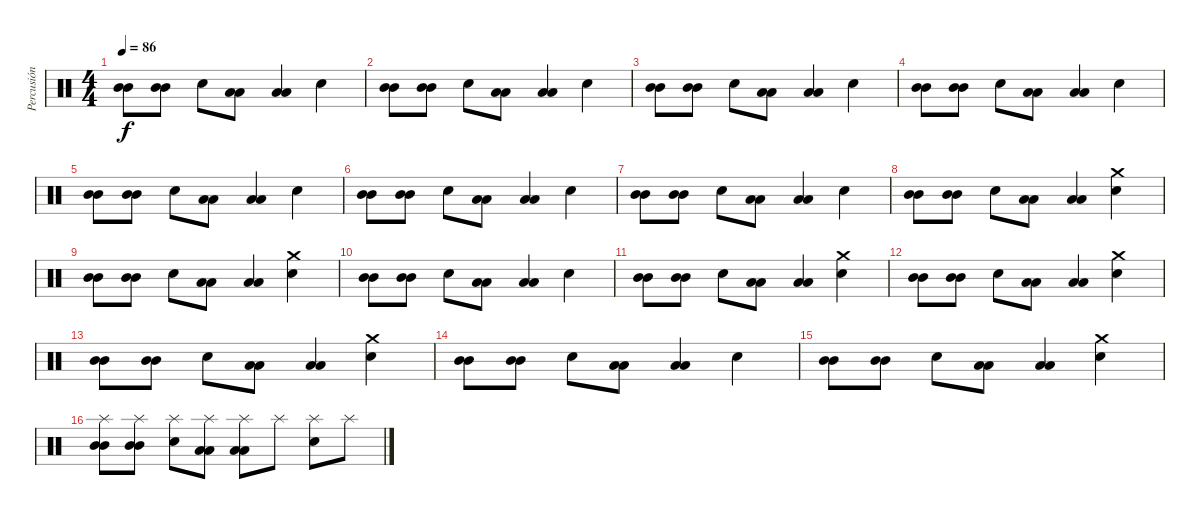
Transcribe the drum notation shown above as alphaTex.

\track ("Percusión" "Percusión") {instrument percussion}
\staff {score}
\articulation defaults
\ts (4 4)
\tempo 86
\clef neutral
\ks c
("Mid Tom (hit)" "Mid Tom (hit)").8{dy f} ("Mid Tom (hit)" "Mid Tom (hit)").8 "Electric Snare (hit)".8 ("Low Tom (hit)" "Low Tom (hit)").8 ("Low Tom (hit)" "Low Tom (hit)").4 "Electric Snare (hit)".4 |
("Mid Tom (hit)" "Mid Tom (hit)").8 ("Mid Tom (hit)" "Mid Tom (hit)").8 "Electric Snare (hit)".8 ("Low Tom (hit)" "Low Tom (hit)").8 ("Low Tom (hit)" "Low Tom (hit)").4 "Electric Snare (hit)".4 |
("Mid Tom (hit)" "Mid Tom (hit)").8 ("Mid Tom (hit)" "Mid Tom (hit)").8 "Electric Snare (hit)".8 ("Low Tom (hit)" "Low Tom (hit)").8 ("Low Tom (hit)" "Low Tom (hit)").4 "Electric Snare (hit)".4 |
("Mid Tom (hit)" "Mid Tom (hit)").8 ("Mid Tom (hit)" "Mid Tom (hit)").8 "Electric Snare (hit)".8 ("Low Tom (hit)" "Low Tom (hit)").8 ("Low Tom (hit)" "Low Tom (hit)").4 "Electric Snare (hit)".4 |
("Mid Tom (hit)" "Mid Tom (hit)").8 ("Mid Tom (hit)" "Mid Tom (hit)").8 "Electric Snare (hit)".8 ("Low Tom (hit)" "Low Tom (hit)").8 ("Low Tom (hit)" "Low Tom (hit)").4 "Electric Snare (hit)".4 |
("Mid Tom (hit)" "Mid Tom (hit)").8 ("Mid Tom (hit)" "Mid Tom (hit)").8 "Electric Snare (hit)".8 ("Low Tom (hit)" "Low Tom (hit)").8 ("Low Tom (hit)" "Low Tom (hit)").4 "Electric Snare (hit)".4 |
("Mid Tom (hit)" "Mid Tom (hit)").8 ("Mid Tom (hit)" "Mid Tom (hit)").8 "Electric Snare (hit)".8 ("Low Tom (hit)" "Low Tom (hit)").8 ("Low Tom (hit)" "Low Tom (hit)").4 "Electric Snare (hit)".4 |
("Mid Tom (hit)" "Mid Tom (hit)").8 ("Mid Tom (hit)" "Mid Tom (hit)").8 "Electric Snare (hit)".8 ("Low Tom (hit)" "Low Tom (hit)").8 ("Low Tom (hit)" "Low Tom (hit)").4 ("Electric Snare (hit)" "Crash medium (hit)").4 |
("Mid Tom (hit)" "Mid Tom (hit)").8 ("Mid Tom (hit)" "Mid Tom (hit)").8 "Electric Snare (hit)".8 ("Low Tom (hit)" "Low Tom (hit)").8 ("Low Tom (hit)" "Low Tom (hit)").4 ("Electric Snare (hit)" "Crash medium (hit)").4 |
("Mid Tom (hit)" "Mid Tom (hit)").8 ("Mid Tom (hit)" "Mid Tom (hit)").8 "Electric Snare (hit)".8 ("Low Tom (hit)" "Low Tom (hit)").8 ("Low Tom (hit)" "Low Tom (hit)").4 "Electric Snare (hit)".4 |
("Mid Tom (hit)" "Mid Tom (hit)").8 ("Mid Tom (hit)" "Mid Tom (hit)").8 "Electric Snare (hit)".8 ("Low Tom (hit)" "Low Tom (hit)").8 ("Low Tom (hit)" "Low Tom (hit)").4 ("Electric Snare (hit)" "Crash medium (hit)").4 |
("Mid Tom (hit)" "Mid Tom (hit)").8 ("Mid Tom (hit)" "Mid Tom (hit)").8 "Electric Snare (hit)".8 ("Low Tom (hit)" "Low Tom (hit)").8 ("Low Tom (hit)" "Low Tom (hit)").4 ("Electric Snare (hit)" "Crash medium (hit)").4 |
("Mid Tom (hit)" "Mid Tom (hit)").8 ("Mid Tom (hit)" "Mid Tom (hit)").8 "Electric Snare (hit)".8 ("Low Tom (hit)" "Low Tom (hit)").8 ("Low Tom (hit)" "Low Tom (hit)").4 ("Electric Snare (hit)" "Crash medium (hit)").4 |
("Mid Tom (hit)" "Mid Tom (hit)").8 ("Mid Tom (hit)" "Mid Tom (hit)").8 "Electric Snare (hit)".8 ("Low Tom (hit)" "Low Tom (hit)").8 ("Low Tom (hit)" "Low Tom (hit)").4 "Electric Snare (hit)".4 |
("Mid Tom (hit)" "Mid Tom (hit)").8 ("Mid Tom (hit)" "Mid Tom (hit)").8 "Electric Snare (hit)".8 ("Low Tom (hit)" "Low Tom (hit)").8 ("Low Tom (hit)" "Low Tom (hit)").4 ("Electric Snare (hit)" "Crash medium (hit)").4 |
("Mid Tom (hit)" "Mid Tom (hit)" "Splash (hit)").8 ("Mid Tom (hit)" "Mid Tom (hit)" "Splash (hit)").8 ("Electric Snare (hit)" "Splash (hit)").8 ("Low Tom (hit)" "Low Tom (hit)" "Splash (hit)").8 ("Low Tom (hit)" "Low Tom (hit)" "Splash (hit)").8 "Splash (hit)".8 ("Electric Snare (hit)" "Splash (hit)").8 "Splash (hit)".8
